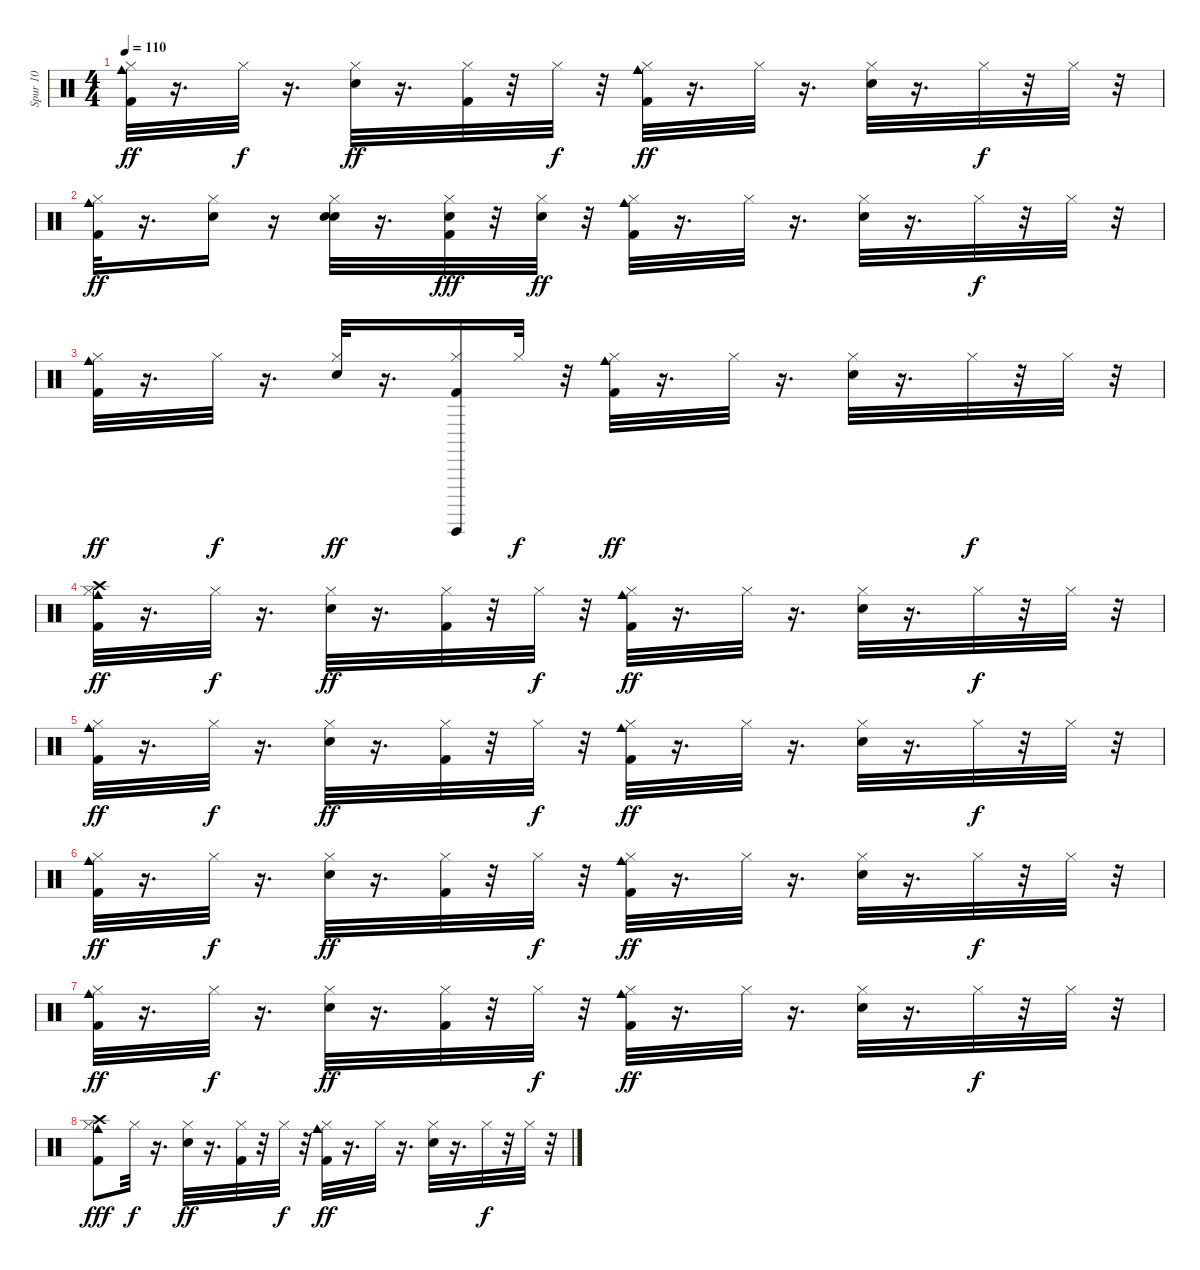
\track ("Spur 10" "Spur 10") {instrument percussion}
\staff {score}
\articulation defaults
\ts (4 4)
\tempo 110
\clef neutral
\ks c
("Kick (hit) 2" "Cowbell medium (hit)" "Hi-Hat (closed)").32{dy ff} r.16{d} "Hi-Hat (closed)".32{dy f} r.16{d} ("Snare (hit) 2" "Hi-Hat (closed)").32{dy ff} r.16{d} ("Kick (hit) 2" "Hi-Hat (closed)").32 r.32 "Hi-Hat (closed)".32{dy f} r.32 ("Kick (hit) 2" "Cowbell medium (hit)" "Hi-Hat (closed)").32{dy ff} r.16{d} "Hi-Hat (closed)".32 r.16{d} ("Snare (hit) 2" "Hi-Hat (closed)").32 r.16{d} "Hi-Hat (closed)".32{dy f} r.32 "Hi-Hat (closed)".32 r.32 |
("Kick (hit) 2" "Cowbell medium (hit)" "Hi-Hat (closed)").32{dy ff} r.16{d} ("Hi-Hat (closed)" "Hand Clap (hit)").16 r.16 ("Snare (hit) 2" "Hand Clap (hit)" "Hi-Hat (closed)").32 r.16{d} ("Kick (hit) 2" "Hi-Hat (closed)" "Hand Clap (hit)").32{dy fff} r.32 ("Hand Clap (hit)" "Hi-Hat (closed)").32{dy ff} r.32 ("Kick (hit) 2" "Cowbell medium (hit)" "Hi-Hat (closed)").32 r.16{d} "Hi-Hat (closed)".32 r.16{d} ("Snare (hit) 2" "Hi-Hat (closed)").32 r.16{d} "Hi-Hat (closed)".32{dy f} r.32 "Hi-Hat (closed)".32 r.32 |
("Kick (hit) 2" "Cowbell medium (hit)" "Hi-Hat (closed)").32{dy ff} r.16{d} "Hi-Hat (closed)".32{dy f} r.16{d} ("Snare (hit) 2" "Hi-Hat (closed)").32{dy ff} r.16{d} ("Kick (hit) 2" "Hi-Hat (closed)" "Guiro (hit)").16 "Hi-Hat (closed)".32{dy f} r.32 ("Kick (hit) 2" "Cowbell medium (hit)" "Hi-Hat (closed)").32{dy ff} r.16{d} "Hi-Hat (closed)".32 r.16{d} ("Snare (hit) 2" "Hi-Hat (closed)").32 r.16{d} "Hi-Hat (closed)".32{dy f} r.32 "Hi-Hat (closed)".32 r.32 |
("Kick (hit) 2" "Cowbell medium (hit)" "Hi-Hat (closed)" "Crash high (hit)").32{dy ff} r.16{d} "Hi-Hat (closed)".32{dy f} r.16{d} ("Snare (hit) 2" "Hi-Hat (closed)").32{dy ff} r.16{d} ("Kick (hit) 2" "Hi-Hat (closed)").32 r.32 "Hi-Hat (closed)".32{dy f} r.32 ("Kick (hit) 2" "Cowbell medium (hit)" "Hi-Hat (closed)").32{dy ff} r.16{d} "Hi-Hat (closed)".32 r.16{d} ("Snare (hit) 2" "Hi-Hat (closed)").32 r.16{d} "Hi-Hat (closed)".32{dy f} r.32 "Hi-Hat (closed)".32 r.32 |
("Kick (hit) 2" "Cowbell medium (hit)" "Hi-Hat (closed)").32{dy ff} r.16{d} "Hi-Hat (closed)".32{dy f} r.16{d} ("Snare (hit) 2" "Hi-Hat (closed)").32{dy ff} r.16{d} ("Kick (hit) 2" "Hi-Hat (closed)").32 r.32 "Hi-Hat (closed)".32{dy f} r.32 ("Kick (hit) 2" "Cowbell medium (hit)" "Hi-Hat (closed)").32{dy ff} r.16{d} "Hi-Hat (closed)".32 r.16{d} ("Snare (hit) 2" "Hi-Hat (closed)").32 r.16{d} "Hi-Hat (closed)".32{dy f} r.32 "Hi-Hat (closed)".32 r.32 |
("Kick (hit) 2" "Cowbell medium (hit)" "Hi-Hat (closed)").32{dy ff} r.16{d} "Hi-Hat (closed)".32{dy f} r.16{d} ("Snare (hit) 2" "Hi-Hat (closed)").32{dy ff} r.16{d} ("Kick (hit) 2" "Hi-Hat (closed)").32 r.32 "Hi-Hat (closed)".32{dy f} r.32 ("Kick (hit) 2" "Cowbell medium (hit)" "Hi-Hat (closed)").32{dy ff} r.16{d} "Hi-Hat (closed)".32 r.16{d} ("Snare (hit) 2" "Hi-Hat (closed)").32 r.16{d} "Hi-Hat (closed)".32{dy f} r.32 "Hi-Hat (closed)".32 r.32 |
("Kick (hit) 2" "Cowbell medium (hit)" "Hi-Hat (closed)").32{dy ff} r.16{d} "Hi-Hat (closed)".32{dy f} r.16{d} ("Snare (hit) 2" "Hi-Hat (closed)").32{dy ff} r.16{d} ("Kick (hit) 2" "Hi-Hat (closed)").32 r.32 "Hi-Hat (closed)".32{dy f} r.32 ("Kick (hit) 2" "Cowbell medium (hit)" "Hi-Hat (closed)").32{dy ff} r.16{d} "Hi-Hat (closed)".32 r.16{d} ("Snare (hit) 2" "Hi-Hat (closed)").32 r.16{d} "Hi-Hat (closed)".32{dy f} r.32 "Hi-Hat (closed)".32 r.32 |
("Kick (hit) 2" "Cowbell medium (hit)" "Hi-Hat (closed)" "Crash high (hit)").8{dy fff} "Hi-Hat (closed)".32{dy f} r.16{d} ("Snare (hit) 2" "Hi-Hat (closed)").32{dy ff} r.16{d} ("Kick (hit) 2" "Hi-Hat (closed)").32 r.32 "Hi-Hat (closed)".32{dy f} r.32 ("Kick (hit) 2" "Cowbell medium (hit)" "Hi-Hat (closed)").32{dy ff} r.16{d} "Hi-Hat (closed)".32 r.16{d} ("Snare (hit) 2" "Hi-Hat (closed)").32 r.16{d} "Hi-Hat (closed)".32{dy f} r.32 "Hi-Hat (closed)".32 r.32
